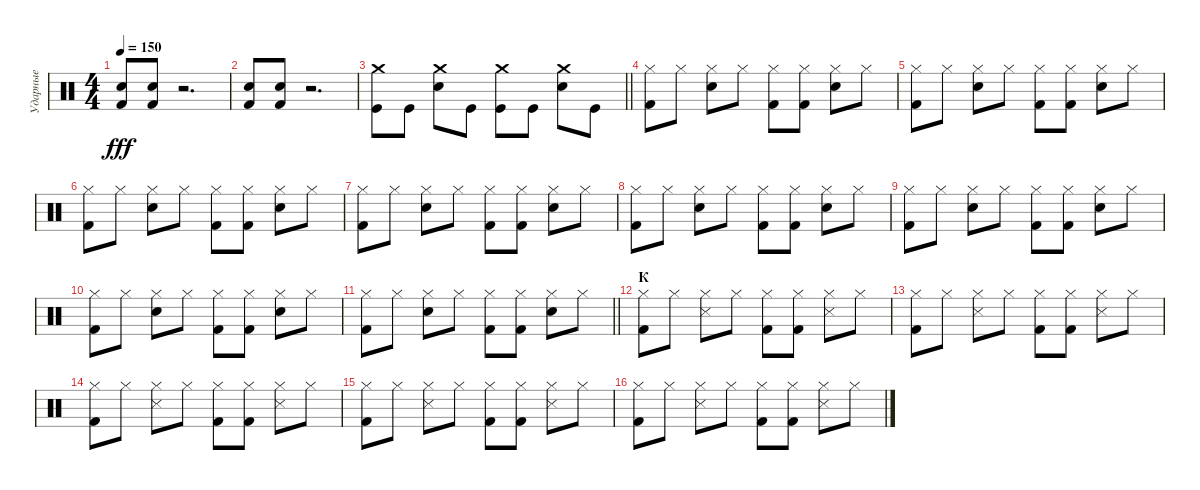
\track ("Ударные" "Ударные") {instrument percussion}
\staff {score}
\articulation defaults
\ts (4 4)
\tempo 150
\clef neutral
\ks c
("Electric Snare (hit)" "Kick (hit) 2").8{dy fff} ("Electric Snare (hit)" "Kick (hit) 2").8 r.2{d} |
("Electric Snare (hit)" "Kick (hit) 2").8 ("Electric Snare (hit)" "Kick (hit) 2").8 r.2{d} |
\barLineRight lightlight
("Crash medium (hit)" "Kick (hit)").8 "Kick (hit)".8 ("Crash medium (hit)" "Electric Snare (hit)").8 "Kick (hit)".8 ("Crash medium (hit)" "Kick (hit)").8 "Kick (hit)".8 ("Crash medium (hit)" "Electric Snare (hit)").8 "Kick (hit)".8 |
("Kick (hit) 2" "Hi-Hat (closed)").8 "Hi-Hat (closed)".8 ("Hi-Hat (closed)" "Electric Snare (hit)").8 "Hi-Hat (closed)".8 ("Kick (hit) 2" "Hi-Hat (closed)").8 ("Kick (hit) 2" "Hi-Hat (closed)").8 ("Hi-Hat (closed)" "Electric Snare (hit)").8 "Hi-Hat (closed)".8 |
("Kick (hit) 2" "Hi-Hat (closed)").8 "Hi-Hat (closed)".8 ("Hi-Hat (closed)" "Electric Snare (hit)").8 "Hi-Hat (closed)".8 ("Kick (hit) 2" "Hi-Hat (closed)").8 ("Kick (hit) 2" "Hi-Hat (closed)").8 ("Hi-Hat (closed)" "Electric Snare (hit)").8 "Hi-Hat (closed)".8 |
("Kick (hit) 2" "Hi-Hat (closed)").8 "Hi-Hat (closed)".8 ("Hi-Hat (closed)" "Electric Snare (hit)").8 "Hi-Hat (closed)".8 ("Kick (hit) 2" "Hi-Hat (closed)").8 ("Kick (hit) 2" "Hi-Hat (closed)").8 ("Hi-Hat (closed)" "Electric Snare (hit)").8 "Hi-Hat (closed)".8 |
("Kick (hit) 2" "Hi-Hat (closed)").8 "Hi-Hat (closed)".8 ("Hi-Hat (closed)" "Electric Snare (hit)").8 "Hi-Hat (closed)".8 ("Kick (hit) 2" "Hi-Hat (closed)").8 ("Kick (hit) 2" "Hi-Hat (closed)").8 ("Hi-Hat (closed)" "Electric Snare (hit)").8 "Hi-Hat (closed)".8 |
("Kick (hit) 2" "Hi-Hat (closed)").8 "Hi-Hat (closed)".8 ("Hi-Hat (closed)" "Electric Snare (hit)").8 "Hi-Hat (closed)".8 ("Kick (hit) 2" "Hi-Hat (closed)").8 ("Kick (hit) 2" "Hi-Hat (closed)").8 ("Hi-Hat (closed)" "Electric Snare (hit)").8 "Hi-Hat (closed)".8 |
("Kick (hit) 2" "Hi-Hat (closed)").8 "Hi-Hat (closed)".8 ("Hi-Hat (closed)" "Electric Snare (hit)").8 "Hi-Hat (closed)".8 ("Kick (hit) 2" "Hi-Hat (closed)").8 ("Kick (hit) 2" "Hi-Hat (closed)").8 ("Hi-Hat (closed)" "Electric Snare (hit)").8 "Hi-Hat (closed)".8 |
("Kick (hit) 2" "Hi-Hat (closed)").8 "Hi-Hat (closed)".8 ("Hi-Hat (closed)" "Electric Snare (hit)").8 "Hi-Hat (closed)".8 ("Kick (hit) 2" "Hi-Hat (closed)").8 ("Kick (hit) 2" "Hi-Hat (closed)").8 ("Hi-Hat (closed)" "Electric Snare (hit)").8 "Hi-Hat (closed)".8 |
\barLineRight lightlight
("Kick (hit) 2" "Hi-Hat (closed)").8 "Hi-Hat (closed)".8 ("Hi-Hat (closed)" "Electric Snare (hit)").8 "Hi-Hat (closed)".8 ("Kick (hit) 2" "Hi-Hat (closed)").8 ("Kick (hit) 2" "Hi-Hat (closed)").8 ("Hi-Hat (closed)" "Electric Snare (hit)").8 "Hi-Hat (closed)".8 |
\section ("" "К")
("Kick (hit) 2" "Hi-Hat (closed)").8 "Hi-Hat (closed)".8 ("Hi-Hat (closed)" "Snare (side stick) 3").8 "Hi-Hat (closed)".8 ("Kick (hit) 2" "Hi-Hat (closed)").8 ("Kick (hit) 2" "Hi-Hat (closed)").8 ("Hi-Hat (closed)" "Snare (side stick) 3").8 "Hi-Hat (closed)".8 |
("Kick (hit) 2" "Hi-Hat (closed)").8 "Hi-Hat (closed)".8 ("Hi-Hat (closed)" "Snare (side stick) 3").8 "Hi-Hat (closed)".8 ("Kick (hit) 2" "Hi-Hat (closed)").8 ("Kick (hit) 2" "Hi-Hat (closed)").8 ("Hi-Hat (closed)" "Snare (side stick) 3").8 "Hi-Hat (closed)".8 |
("Kick (hit) 2" "Hi-Hat (closed)").8 "Hi-Hat (closed)".8 ("Hi-Hat (closed)" "Snare (side stick) 3").8 "Hi-Hat (closed)".8 ("Kick (hit) 2" "Hi-Hat (closed)").8 ("Kick (hit) 2" "Hi-Hat (closed)").8 ("Hi-Hat (closed)" "Snare (side stick) 3").8 "Hi-Hat (closed)".8 |
("Kick (hit) 2" "Hi-Hat (closed)").8 "Hi-Hat (closed)".8 ("Hi-Hat (closed)" "Snare (side stick) 3").8 "Hi-Hat (closed)".8 ("Kick (hit) 2" "Hi-Hat (closed)").8 ("Kick (hit) 2" "Hi-Hat (closed)").8 ("Hi-Hat (closed)" "Snare (side stick) 3").8 "Hi-Hat (closed)".8 |
("Kick (hit) 2" "Hi-Hat (closed)").8 "Hi-Hat (closed)".8 ("Hi-Hat (closed)" "Snare (side stick) 3").8 "Hi-Hat (closed)".8 ("Kick (hit) 2" "Hi-Hat (closed)").8 ("Kick (hit) 2" "Hi-Hat (closed)").8 ("Hi-Hat (closed)" "Snare (side stick) 3").8 "Hi-Hat (closed)".8
